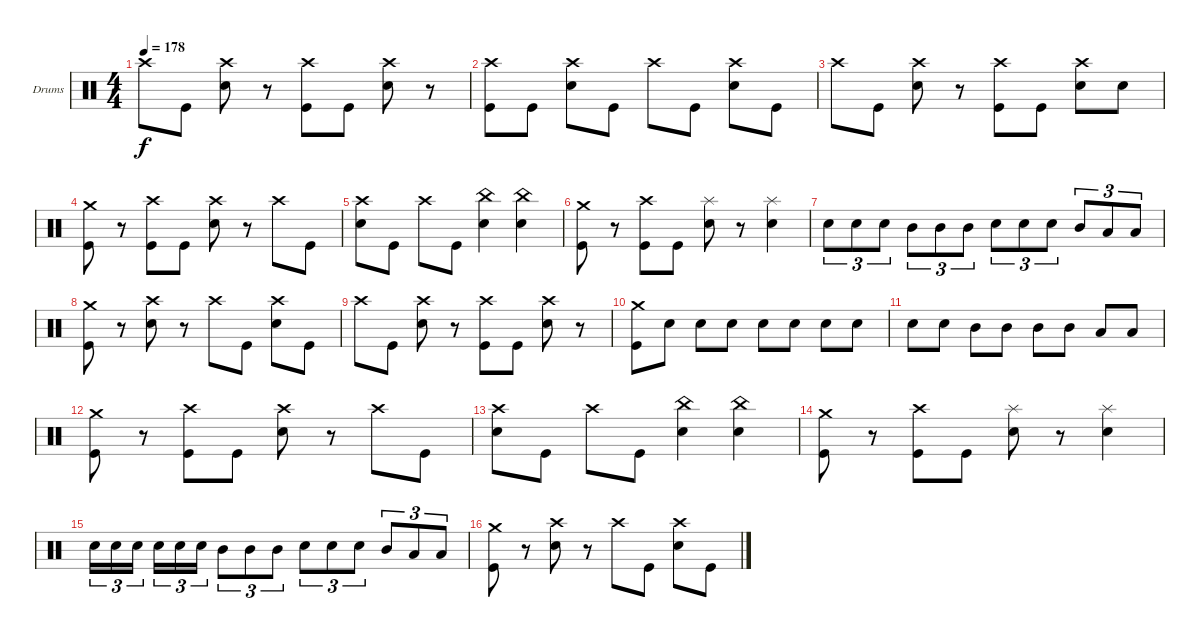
\bracketExtendMode groupsimilarinstruments
\firstSystemTrackNameOrientation horizontal
\otherSystemsTrackNameOrientation horizontal
\track ("Drumkit" "Drums") {instrument percussion}
\staff {score}
\articulation defaults
\ts (4 4)
\tempo 178
\clef neutral
\ks c "Crash high (hit)".8{dy f} "Kick (hit)".8
("Crash high (hit)" "Snare (hit) 2").8 r.8 ("Crash high (hit)" "Kick (hit)").8 "Kick (hit)".8 ("Crash high (hit)" "Snare (hit) 2").8 r.8 |
("Crash high (hit)" "Kick (hit)").8 "Kick (hit)".8 ("Crash high (hit)" "Snare (hit) 2").8 "Kick (hit)".8 "Crash high (hit)".8 "Kick (hit)".8 ("Crash high (hit)" "Snare (hit) 2").8 "Kick (hit)".8 |
"Crash high (hit)".8 "Kick (hit)".8 ("Crash high (hit)" "Snare (hit) 2").8 r.8 ("Crash high (hit)" "Kick (hit)").8 "Kick (hit)".8 ("Crash high (hit)" "Snare (hit) 2").8 "Snare (hit) 2".8 |
("Crash medium (hit)" "Kick (hit)").8 r.8 ("Crash high (hit)" "Kick (hit)").8 "Kick (hit)".8 ("Crash high (hit)" "Snare (hit) 2").8 r.8 "Crash high (hit)".8 "Kick (hit)".8 |
("Crash high (hit)" "Snare (hit) 2").8 "Kick (hit)".8 "Crash high (hit)".8 "Kick (hit)".8 ("China (hit)" "Snare (hit) 2").4 ("China (hit)" "Snare (hit) 2").4 |
("Crash medium (hit)" "Kick (hit)").8 r.8 ("Crash high (hit)" "Kick (hit)").8 "Kick (hit)".8 ("Splash (hit)" "Snare (hit) 2").8 r.8 ("Splash (hit)" "Snare (hit) 2").4 |
"Snare (hit) 2".8{tu (3 2)} "Snare (hit) 2".8{tu (3 2)} "Snare (hit) 2".8{tu (3 2)} "Mid Tom (hit)".8{tu (3 2)} "Mid Tom (hit)".8{tu (3 2)} "Mid Tom (hit)".8{tu (3 2)} "Snare (hit) 2".8{tu (3 2)} "Snare (hit) 2".8{tu (3 2)} "Snare (hit) 2".8{tu (3 2)} "Mid Tom (hit)".8{tu (3 2)} "Low Tom (hit)".8{tu (3 2)} "Low Tom (hit)".8{tu (3 2)} |
("Crash medium (hit)" "Kick (hit)").8 r.8 ("Crash high (hit)" "Snare (hit) 2").8 r.8 "Crash high (hit)".8 "Kick (hit)".8 ("Crash high (hit)" "Snare (hit) 2").8 "Kick (hit)".8 |
"Crash high (hit)".8 "Kick (hit)".8 ("Crash high (hit)" "Snare (hit) 2").8 r.8 ("Crash high (hit)" "Kick (hit)").8 "Kick (hit)".8 ("Crash high (hit)" "Snare (hit) 2").8 r.8 |
("Crash medium (hit)" "Kick (hit)").8 "Snare (hit) 2".8 "Snare (hit) 2".8 "Snare (hit) 2".8 "Snare (hit) 2".8 "Snare (hit) 2".8 "Snare (hit) 2".8 "Snare (hit) 2".8 |
"Snare (hit) 2".8 "Snare (hit) 2".8 "Mid Tom (hit)".8 "Mid Tom (hit)".8 "Mid Tom (hit)".8 "Mid Tom (hit)".8 "Low Tom (hit)".8 "Low Tom (hit)".8 |
("Crash medium (hit)" "Kick (hit)").8 r.8 ("Crash high (hit)" "Kick (hit)").8 "Kick (hit)".8 ("Crash high (hit)" "Snare (hit) 2").8 r.8 "Crash high (hit)".8 "Kick (hit)".8 |
("Crash high (hit)" "Snare (hit) 2").8 "Kick (hit)".8 "Crash high (hit)".8 "Kick (hit)".8 ("China (hit)" "Snare (hit) 2").4 ("China (hit)" "Snare (hit) 2").4 |
("Crash medium (hit)" "Kick (hit)").8 r.8 ("Crash high (hit)" "Kick (hit)").8 "Kick (hit)".8 ("Splash (hit)" "Snare (hit) 2").8 r.8 ("Splash (hit)" "Snare (hit) 2").4 |
"Snare (hit) 2".16{tu (3 2)} "Snare (hit) 2".16{tu (3 2)} "Snare (hit) 2".16{tu (3 2)} "Snare (hit) 2".16{tu (3 2)} "Snare (hit) 2".16{tu (3 2)} "Snare (hit) 2".16{tu (3 2)} "Mid Tom (hit)".8{tu (3 2)} "Mid Tom (hit)".8{tu (3 2)} "Mid Tom (hit)".8{tu (3 2)} "Snare (hit) 2".8{tu (3 2)} "Snare (hit) 2".8{tu (3 2)} "Snare (hit) 2".8{tu (3 2)} "Mid Tom (hit)".8{tu (3 2)} "Low Tom (hit)".8{tu (3 2)} "Low Tom (hit)".8{tu (3 2)} |
("Crash medium (hit)" "Kick (hit)").8 r.8 ("Crash high (hit)" "Snare (hit) 2").8 r.8 "Crash high (hit)".8 "Kick (hit)".8 ("Crash high (hit)" "Snare (hit) 2").8 "Kick (hit)".8
